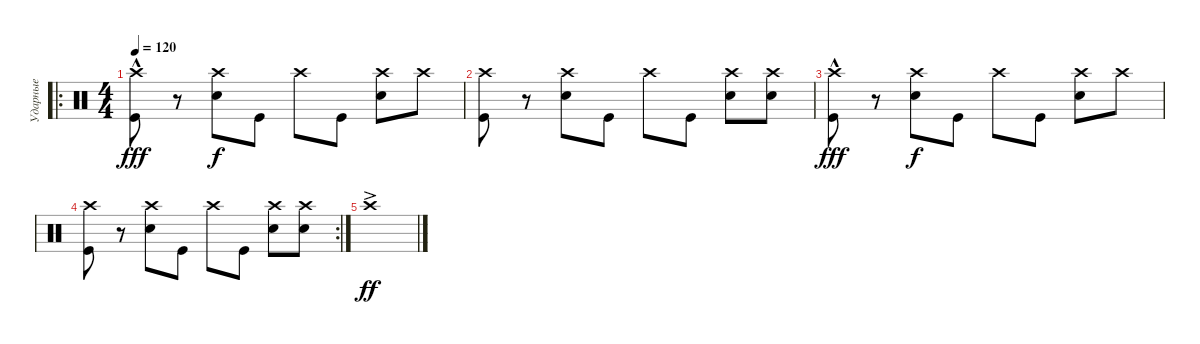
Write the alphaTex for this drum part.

\track ("Ударные" "Ударные") {instrument percussion}
\staff {score}
\articulation defaults
\ro
\ts (4 4)
\tempo 120
\clef neutral
\ks c
("Kick (hit)" "Crash high (hit)"{hac}).8{dy fff} r.8 ("Crash high (hit)" "Snare (hit) 2").8{dy f} "Kick (hit)".8 "Crash high (hit)".8 "Kick (hit)".8 ("Snare (hit) 2" "Crash high (hit)").8 "Crash high (hit)".8 |
("Kick (hit)" "Crash high (hit)").8 r.8 ("Snare (hit) 2" "Crash high (hit)").8 "Kick (hit)".8 "Crash high (hit)".8 "Kick (hit)".8 ("Snare (hit) 2" "Crash high (hit)").8 ("Snare (hit) 2" "Crash high (hit)").8 |
("Kick (hit)" "Crash high (hit)"{hac}).8{dy fff} r.8 ("Crash high (hit)" "Snare (hit) 2").8{dy f} "Kick (hit)".8 "Crash high (hit)".8 "Kick (hit)".8 ("Snare (hit) 2" "Crash high (hit)").8 "Crash high (hit)".8 |
\rc 2
("Kick (hit)" "Crash high (hit)").8 r.8 ("Snare (hit) 2" "Crash high (hit)").8 "Kick (hit)".8 "Crash high (hit)".8 "Kick (hit)".8 ("Snare (hit) 2" "Crash high (hit)").8 ("Snare (hit) 2" "Crash high (hit)").8 |
"Crash high (hit)"{ac}.1{dy ff}
